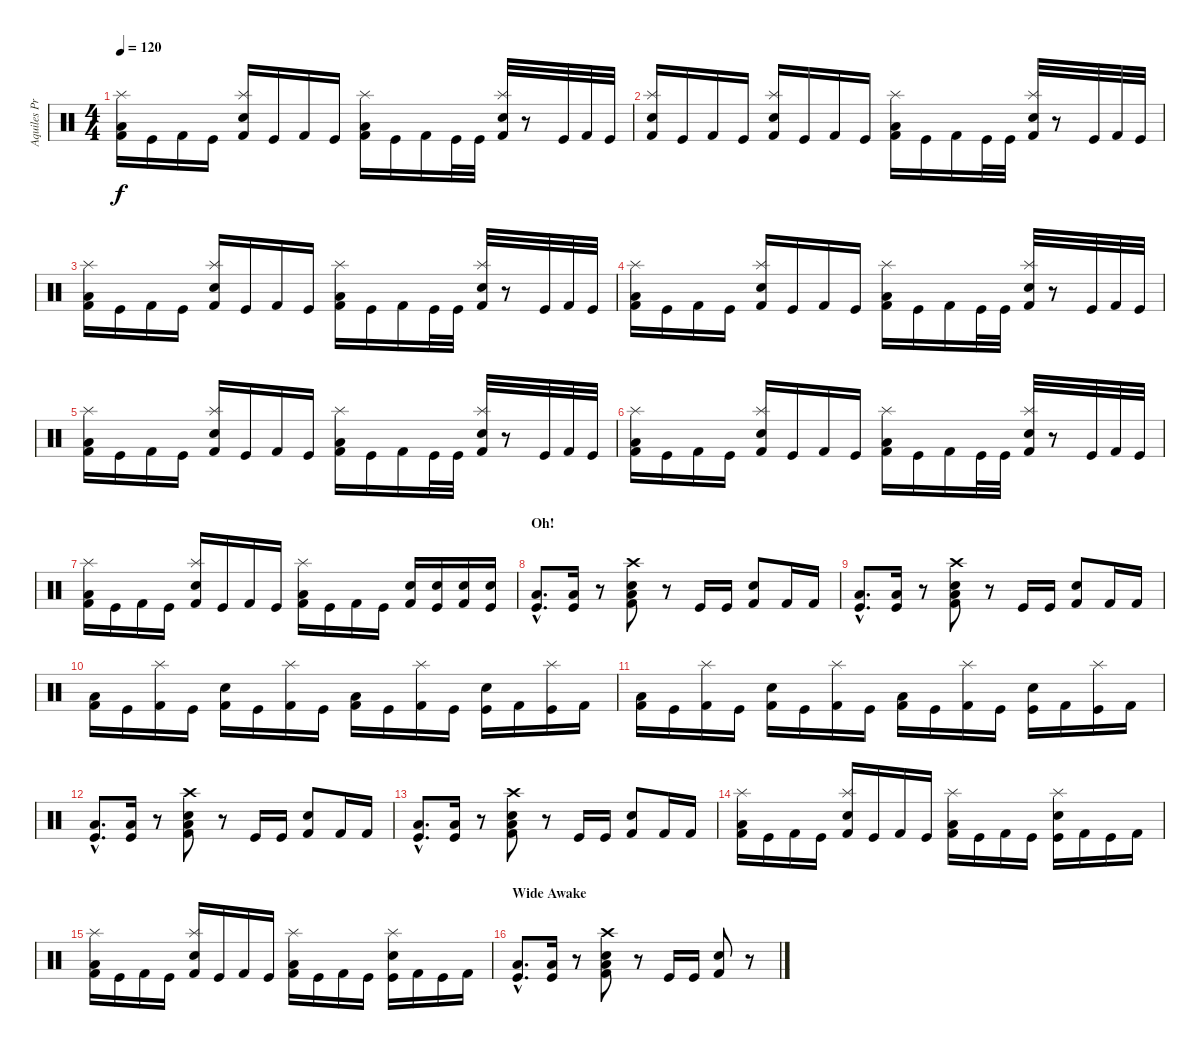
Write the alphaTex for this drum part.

\track ("Aquiles Priester" "Aquiles Pr") {instrument percussion}
\staff {score}
\articulation defaults
\ts (4 4)
\tempo 120
\clef neutral
\ks c
("Kick (hit) 2" "Low Floor Tom (hit)" "Splash (hit)").16{dy f} "Kick (hit)".16 "Kick (hit) 2".16 "Kick (hit)".16 ("Kick (hit) 2" "Electric Snare (hit)" "Splash (hit)").16 "Kick (hit)".16 "Kick (hit) 2".16 "Kick (hit)".16 ("Kick (hit) 2" "Low Floor Tom (hit)" "Splash (hit)").16 "Kick (hit)".16 "Kick (hit) 2".16 "Kick (hit)".32 "Kick (hit)".32 ("Kick (hit) 2" "Electric Snare (hit)" "Splash (hit)").32 r.8 "Kick (hit)".32 "Kick (hit) 2".32 "Kick (hit)".32 |
("Kick (hit) 2" "Electric Snare (hit)" "Splash (hit)").16 "Kick (hit)".16 "Kick (hit) 2".16 "Kick (hit)".16 ("Kick (hit) 2" "Electric Snare (hit)" "Splash (hit)").16 "Kick (hit)".16 "Kick (hit) 2".16 "Kick (hit)".16 ("Kick (hit) 2" "Low Floor Tom (hit)" "Splash (hit)").16 "Kick (hit)".16 "Kick (hit) 2".16 "Kick (hit)".32 "Kick (hit)".32 ("Kick (hit) 2" "Electric Snare (hit)" "Splash (hit)").32 r.8 "Kick (hit)".32 "Kick (hit) 2".32 "Kick (hit)".32 |
("Kick (hit) 2" "Low Floor Tom (hit)" "Splash (hit)").16 "Kick (hit)".16 "Kick (hit) 2".16 "Kick (hit)".16 ("Kick (hit) 2" "Electric Snare (hit)" "Splash (hit)").16 "Kick (hit)".16 "Kick (hit) 2".16 "Kick (hit)".16 ("Kick (hit) 2" "Low Floor Tom (hit)" "Splash (hit)").16 "Kick (hit)".16 "Kick (hit) 2".16 "Kick (hit)".32 "Kick (hit)".32 ("Kick (hit) 2" "Electric Snare (hit)" "Splash (hit)").32 r.8 "Kick (hit)".32 "Kick (hit) 2".32 "Kick (hit)".32 |
("Kick (hit) 2" "Low Floor Tom (hit)" "Splash (hit)").16 "Kick (hit)".16 "Kick (hit) 2".16 "Kick (hit)".16 ("Kick (hit) 2" "Electric Snare (hit)" "Splash (hit)").16 "Kick (hit)".16 "Kick (hit) 2".16 "Kick (hit)".16 ("Kick (hit) 2" "Low Floor Tom (hit)" "Splash (hit)").16 "Kick (hit)".16 "Kick (hit) 2".16 "Kick (hit)".32 "Kick (hit)".32 ("Kick (hit) 2" "Electric Snare (hit)" "Splash (hit)").32 r.8 "Kick (hit)".32 "Kick (hit) 2".32 "Kick (hit)".32 |
("Kick (hit) 2" "Low Floor Tom (hit)" "Splash (hit)").16 "Kick (hit)".16 "Kick (hit) 2".16 "Kick (hit)".16 ("Kick (hit) 2" "Electric Snare (hit)" "Splash (hit)").16 "Kick (hit)".16 "Kick (hit) 2".16 "Kick (hit)".16 ("Kick (hit) 2" "Low Floor Tom (hit)" "Splash (hit)").16 "Kick (hit)".16 "Kick (hit) 2".16 "Kick (hit)".32 "Kick (hit)".32 ("Kick (hit) 2" "Electric Snare (hit)" "Splash (hit)").32 r.8 "Kick (hit)".32 "Kick (hit) 2".32 "Kick (hit)".32 |
("Kick (hit) 2" "Low Floor Tom (hit)" "Splash (hit)").16 "Kick (hit)".16 "Kick (hit) 2".16 "Kick (hit)".16 ("Kick (hit) 2" "Electric Snare (hit)" "Splash (hit)").16 "Kick (hit)".16 "Kick (hit) 2".16 "Kick (hit)".16 ("Kick (hit) 2" "Low Floor Tom (hit)" "Splash (hit)").16 "Kick (hit)".16 "Kick (hit) 2".16 "Kick (hit)".32 "Kick (hit)".32 ("Kick (hit) 2" "Electric Snare (hit)" "Splash (hit)").32 r.8 "Kick (hit)".32 "Kick (hit) 2".32 "Kick (hit)".32 |
("Kick (hit) 2" "Low Floor Tom (hit)" "Splash (hit)").16 "Kick (hit)".16 "Kick (hit) 2".16 "Kick (hit)".16 ("Kick (hit) 2" "Electric Snare (hit)" "Splash (hit)").16 "Kick (hit)".16 "Kick (hit) 2".16 "Kick (hit)".16 ("Kick (hit) 2" "Low Floor Tom (hit)" "Splash (hit)").16 "Kick (hit)".16 "Kick (hit) 2".16 "Kick (hit)".16 ("Kick (hit) 2" "Electric Snare (hit)").16 ("Kick (hit)" "Electric Snare (hit)").16 ("Kick (hit) 2" "Electric Snare (hit)").16 ("Kick (hit)" "Electric Snare (hit)").16 |
\section ("" "Oh!")
("Kick (hit)"{hac} "Low Floor Tom (hit)"{hac}).8{d} ("Kick (hit)" "Low Floor Tom (hit)").16 r.8 ("Kick (hit) 2" "Electric Snare (hit)" "Low Floor Tom (hit)" "Crash high (hit)").8 r.8 "Kick (hit)".16 "Kick (hit)".16 ("Kick (hit) 2" "Electric Snare (hit)").8 "Kick (hit) 2".16 "Kick (hit) 2".16 |
("Kick (hit)"{hac} "Low Floor Tom (hit)"{hac}).8{d} ("Kick (hit)" "Low Floor Tom (hit)").16 r.8 ("Kick (hit) 2" "Electric Snare (hit)" "Low Floor Tom (hit)" "Crash high (hit)").8 r.8 "Kick (hit)".16 "Kick (hit)".16 ("Kick (hit) 2" "Electric Snare (hit)").8 "Kick (hit) 2".16 "Kick (hit) 2".16 |
("Kick (hit) 2" "Low Floor Tom (hit)").16 "Kick (hit)".16 ("Kick (hit) 2" "Splash (hit)").16 "Kick (hit)".16 ("Kick (hit) 2" "Electric Snare (hit)").16 "Kick (hit)".16 ("Kick (hit) 2" "Splash (hit)").16 "Kick (hit)".16 ("Kick (hit) 2" "Low Floor Tom (hit)").16 "Kick (hit)".16 ("Kick (hit) 2" "Splash (hit)").16 "Kick (hit)".16 ("Kick (hit)" "Electric Snare (hit)").16 "Kick (hit) 2".16 ("Kick (hit)" "Splash (hit)").16 "Kick (hit) 2".16 |
("Kick (hit) 2" "Low Floor Tom (hit)").16 "Kick (hit)".16 ("Kick (hit) 2" "Splash (hit)").16 "Kick (hit)".16 ("Kick (hit) 2" "Electric Snare (hit)").16 "Kick (hit)".16 ("Kick (hit) 2" "Splash (hit)").16 "Kick (hit)".16 ("Kick (hit) 2" "Low Floor Tom (hit)").16 "Kick (hit)".16 ("Kick (hit) 2" "Splash (hit)").16 "Kick (hit)".16 ("Kick (hit)" "Electric Snare (hit)").16 "Kick (hit) 2".16 ("Kick (hit)" "Splash (hit)").16 "Kick (hit) 2".16 |
("Kick (hit)"{hac} "Low Floor Tom (hit)"{hac}).8{d} ("Kick (hit)" "Low Floor Tom (hit)").16 r.8 ("Kick (hit) 2" "Electric Snare (hit)" "Low Floor Tom (hit)" "Crash high (hit)").8 r.8 "Kick (hit)".16 "Kick (hit)".16 ("Kick (hit) 2" "Electric Snare (hit)").8 "Kick (hit) 2".16 "Kick (hit) 2".16 |
("Kick (hit)"{hac} "Low Floor Tom (hit)"{hac}).8{d} ("Kick (hit)" "Low Floor Tom (hit)").16 r.8 ("Kick (hit) 2" "Electric Snare (hit)" "Low Floor Tom (hit)" "Crash high (hit)").8 r.8 "Kick (hit)".16 "Kick (hit)".16 ("Kick (hit) 2" "Electric Snare (hit)").8 "Kick (hit) 2".16 "Kick (hit) 2".16 |
("Kick (hit) 2" "Low Floor Tom (hit)" "Splash (hit)").16 "Kick (hit)".16 "Kick (hit) 2".16 "Kick (hit)".16 ("Kick (hit) 2" "Electric Snare (hit)" "Splash (hit)").16 "Kick (hit)".16 "Kick (hit) 2".16 "Kick (hit)".16 ("Kick (hit) 2" "Low Floor Tom (hit)" "Splash (hit)").16 "Kick (hit)".16 "Kick (hit) 2".16 "Kick (hit)".16 ("Kick (hit)" "Electric Snare (hit)" "Splash (hit)").16 "Kick (hit) 2".16 "Kick (hit)".16 "Kick (hit) 2".16 |
("Kick (hit) 2" "Low Floor Tom (hit)" "Splash (hit)").16 "Kick (hit)".16 "Kick (hit) 2".16 "Kick (hit)".16 ("Kick (hit) 2" "Electric Snare (hit)" "Splash (hit)").16 "Kick (hit)".16 "Kick (hit) 2".16 "Kick (hit)".16 ("Kick (hit) 2" "Low Floor Tom (hit)" "Splash (hit)").16 "Kick (hit)".16 "Kick (hit) 2".16 "Kick (hit)".16 ("Kick (hit)" "Electric Snare (hit)" "Splash (hit)").16 "Kick (hit) 2".16 "Kick (hit)".16 "Kick (hit) 2".16 |
\section ("" "Wide Awake")
("Kick (hit)"{hac} "Low Floor Tom (hit)"{hac}).8{d} ("Kick (hit)" "Low Floor Tom (hit)").16 r.8 ("Kick (hit) 2" "Electric Snare (hit)" "Low Floor Tom (hit)" "Crash high (hit)").8 r.8 "Kick (hit)".16 "Kick (hit)".16 ("Kick (hit) 2" "Electric Snare (hit)").8 r.8
